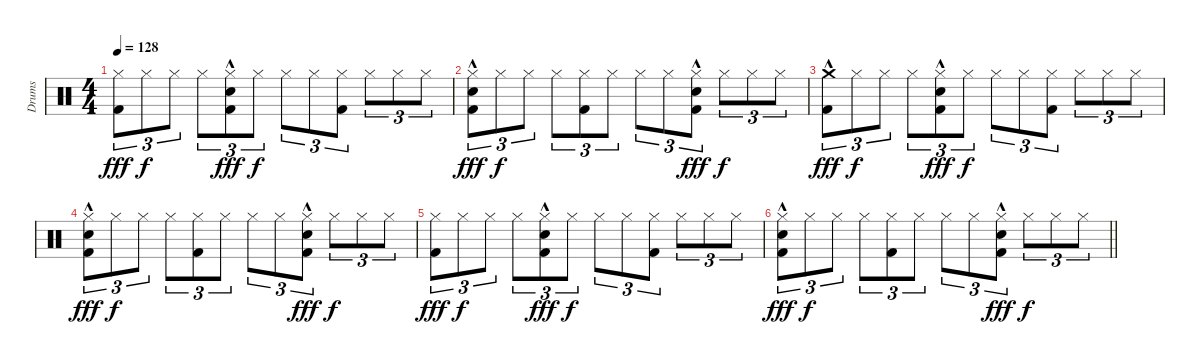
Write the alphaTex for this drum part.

\track ("Drums" "Drums") {instrument percussion}
\staff {score}
\articulation defaults
\ts (4 4)
\tempo 128
\clef neutral
\ks c
("Hi-Hat (closed)" "Kick (hit) 2").8{tu (3 2) dy fff} "Hi-Hat (closed)".8{tu (3 2) dy f} "Hi-Hat (closed)".8{tu (3 2)} "Hi-Hat (closed)".8{tu (3 2)} ("Hi-Hat (closed)" "Snare (hit) 2"{hac} "Kick (hit) 2").8{tu (3 2) dy fff} "Hi-Hat (closed)".8{tu (3 2) dy f} "Hi-Hat (closed)".8{tu (3 2)} "Hi-Hat (closed)".8{tu (3 2)} ("Hi-Hat (closed)" "Kick (hit) 2").8{tu (3 2)} "Hi-Hat (closed)".8{tu (3 2)} "Hi-Hat (closed)".8{tu (3 2)} "Hi-Hat (closed)".8{tu (3 2)} |
("Hi-Hat (closed)" "Snare (hit) 2"{hac} "Kick (hit) 2").8{tu (3 2) dy fff} "Hi-Hat (closed)".8{tu (3 2) dy f} "Hi-Hat (closed)".8{tu (3 2)} "Hi-Hat (closed)".8{tu (3 2)} ("Hi-Hat (closed)" "Kick (hit) 2").8{tu (3 2)} "Hi-Hat (closed)".8{tu (3 2)} "Hi-Hat (closed)".8{tu (3 2)} "Hi-Hat (closed)".8{tu (3 2)} ("Hi-Hat (closed)" "Snare (hit) 2"{hac} "Kick (hit) 2").8{tu (3 2) dy fff} "Hi-Hat (closed)".8{tu (3 2) dy f} "Hi-Hat (closed)".8{tu (3 2)} "Hi-Hat (closed)".8{tu (3 2)} |
("Crash medium (hit)"{hac} "Kick (hit) 2").8{tu (3 2) dy fff} "Hi-Hat (closed)".8{tu (3 2) dy f} "Hi-Hat (closed)".8{tu (3 2)} "Hi-Hat (closed)".8{tu (3 2)} ("Hi-Hat (closed)" "Snare (hit) 2"{hac} "Kick (hit) 2").8{tu (3 2) dy fff} "Hi-Hat (closed)".8{tu (3 2) dy f} "Hi-Hat (closed)".8{tu (3 2)} "Hi-Hat (closed)".8{tu (3 2)} ("Hi-Hat (closed)" "Kick (hit) 2").8{tu (3 2)} "Hi-Hat (closed)".8{tu (3 2)} "Hi-Hat (closed)".8{tu (3 2)} "Hi-Hat (closed)".8{tu (3 2)} |
("Hi-Hat (closed)" "Snare (hit) 2"{hac} "Kick (hit) 2").8{tu (3 2) dy fff} "Hi-Hat (closed)".8{tu (3 2) dy f} "Hi-Hat (closed)".8{tu (3 2)} "Hi-Hat (closed)".8{tu (3 2)} ("Hi-Hat (closed)" "Kick (hit) 2").8{tu (3 2)} "Hi-Hat (closed)".8{tu (3 2)} "Hi-Hat (closed)".8{tu (3 2)} "Hi-Hat (closed)".8{tu (3 2)} ("Hi-Hat (closed)" "Snare (hit) 2"{hac} "Kick (hit) 2").8{tu (3 2) dy fff} "Hi-Hat (closed)".8{tu (3 2) dy f} "Hi-Hat (closed)".8{tu (3 2)} "Hi-Hat (closed)".8{tu (3 2)} |
("Hi-Hat (closed)" "Kick (hit) 2").8{tu (3 2) dy fff} "Hi-Hat (closed)".8{tu (3 2) dy f} "Hi-Hat (closed)".8{tu (3 2)} "Hi-Hat (closed)".8{tu (3 2)} ("Hi-Hat (closed)" "Snare (hit) 2"{hac} "Kick (hit) 2").8{tu (3 2) dy fff} "Hi-Hat (closed)".8{tu (3 2) dy f} "Hi-Hat (closed)".8{tu (3 2)} "Hi-Hat (closed)".8{tu (3 2)} ("Hi-Hat (closed)" "Kick (hit) 2").8{tu (3 2)} "Hi-Hat (closed)".8{tu (3 2)} "Hi-Hat (closed)".8{tu (3 2)} "Hi-Hat (closed)".8{tu (3 2)} |
\barLineRight lightlight
("Hi-Hat (closed)" "Snare (hit) 2"{hac} "Kick (hit) 2").8{tu (3 2) dy fff} "Hi-Hat (closed)".8{tu (3 2) dy f} "Hi-Hat (closed)".8{tu (3 2)} "Hi-Hat (closed)".8{tu (3 2)} ("Hi-Hat (closed)" "Kick (hit) 2").8{tu (3 2)} "Hi-Hat (closed)".8{tu (3 2)} "Hi-Hat (closed)".8{tu (3 2)} "Hi-Hat (closed)".8{tu (3 2)} ("Hi-Hat (closed)" "Snare (hit) 2"{hac} "Kick (hit) 2").8{tu (3 2) dy fff} "Hi-Hat (closed)".8{tu (3 2) dy f} "Hi-Hat (closed)".8{tu (3 2)} "Hi-Hat (closed)".8{tu (3 2)}
